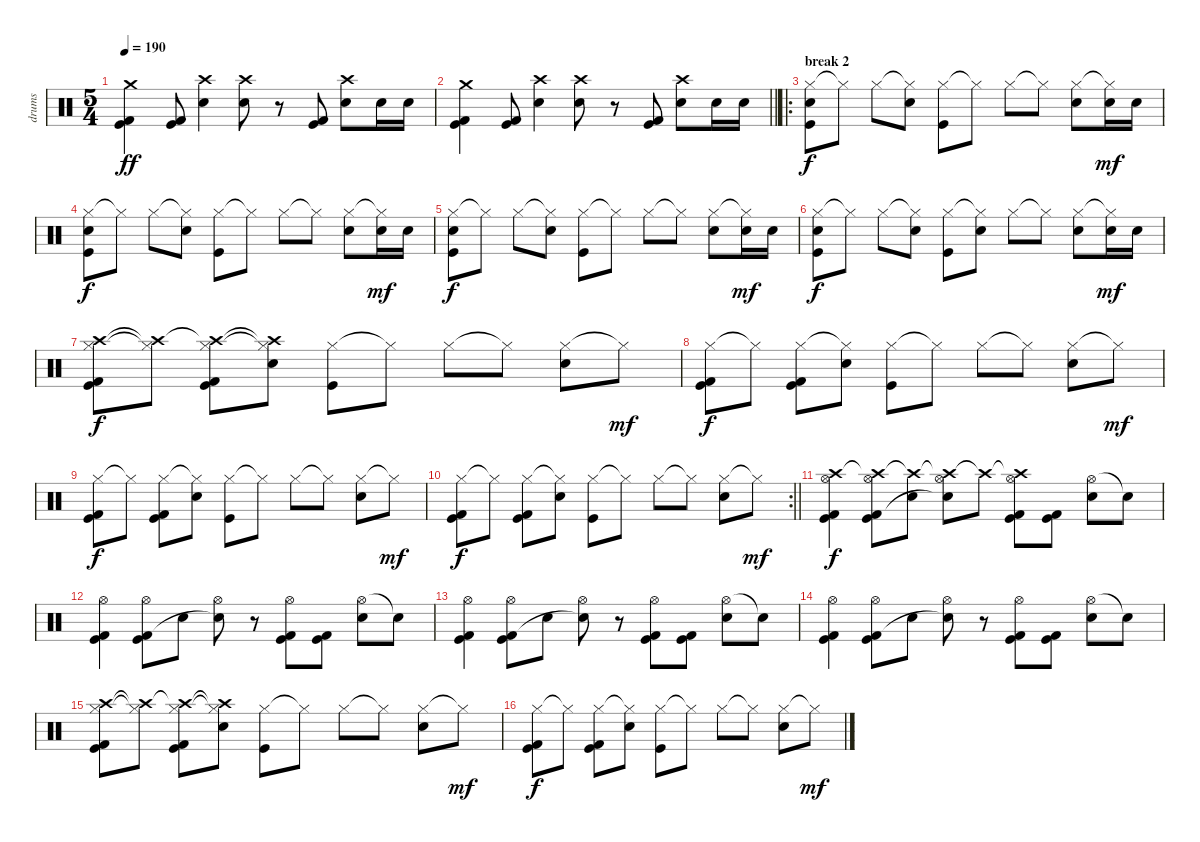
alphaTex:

\track ("drums" "drums") {instrument percussion}
\staff {score}
\articulation defaults
\ts (5 4)
\tempo 190
\clef neutral
\ks c
("Crash medium (hit)" "Kick (hit) 2" "Kick (hit)").4{dy ff} ("Kick (hit) 2" "Kick (hit)").8 ("Crash high (hit)" "Electric Snare (hit)").4 ("Crash high (hit)" "Electric Snare (hit)").8 r.8 ("Kick (hit) 2" "Kick (hit)").8 ("Crash high (hit)" "Electric Snare (hit)").8 "Electric Snare (hit)".16 "Electric Snare (hit)".16 |
\barLineRight lightlight
("Crash medium (hit)" "Kick (hit) 2" "Kick (hit)").4 ("Kick (hit) 2" "Kick (hit)").8 ("Crash high (hit)" "Electric Snare (hit)").4 ("Crash high (hit)" "Electric Snare (hit)").8 r.8 ("Kick (hit) 2" "Kick (hit)").8 ("Crash high (hit)" "Electric Snare (hit)").8 "Electric Snare (hit)".16 "Electric Snare (hit)".16 |
\ro
\section ("" "break 2")
("Hi-Hat (closed)" "Electric Snare (hit)" "Kick (hit)").8{dy f} "Hi-Hat (closed)"{t}.8 "Hi-Hat (closed)".8 ("Hi-Hat (closed)"{t} "Electric Snare (hit)").8 ("Hi-Hat (closed)" "Kick (hit)").8 "Hi-Hat (closed)"{t}.8 "Hi-Hat (closed)".8 "Hi-Hat (closed)"{t}.8 ("Hi-Hat (closed)" "Electric Snare (hit)").8 ("Hi-Hat (closed)"{t} "Electric Snare (hit)").16{dy mf} "Electric Snare (hit)".16 |
("Hi-Hat (closed)" "Electric Snare (hit)" "Kick (hit)").8{dy f} "Hi-Hat (closed)"{t}.8 "Hi-Hat (closed)".8 ("Hi-Hat (closed)"{t} "Electric Snare (hit)").8 ("Hi-Hat (closed)" "Kick (hit)").8 "Hi-Hat (closed)"{t}.8 "Hi-Hat (closed)".8 "Hi-Hat (closed)"{t}.8 ("Hi-Hat (closed)" "Electric Snare (hit)").8 ("Hi-Hat (closed)"{t} "Electric Snare (hit)").16{dy mf} "Electric Snare (hit)".16 |
("Hi-Hat (closed)" "Electric Snare (hit)" "Kick (hit)").8{dy f} "Hi-Hat (closed)"{t}.8 "Hi-Hat (closed)".8 ("Hi-Hat (closed)"{t} "Electric Snare (hit)").8 ("Hi-Hat (closed)" "Kick (hit)").8 "Hi-Hat (closed)"{t}.8 "Hi-Hat (closed)".8 "Hi-Hat (closed)"{t}.8 ("Hi-Hat (closed)" "Electric Snare (hit)").8 ("Hi-Hat (closed)"{t} "Electric Snare (hit)").16{dy mf} "Electric Snare (hit)".16 |
("Hi-Hat (closed)" "Electric Snare (hit)" "Kick (hit)").8{dy f} "Hi-Hat (closed)"{t}.8 "Hi-Hat (closed)".8 ("Hi-Hat (closed)"{t} "Electric Snare (hit)").8 ("Hi-Hat (closed)" "Kick (hit)").8 ("Hi-Hat (closed)"{t} "Electric Snare (hit)").8 "Hi-Hat (closed)".8 "Hi-Hat (closed)"{t}.8 ("Hi-Hat (closed)" "Electric Snare (hit)").8 ("Hi-Hat (closed)"{t} "Electric Snare (hit)").16{dy mf} "Electric Snare (hit)".16 |
("Crash high (hit)" "Hi-Hat (closed)" "Kick (hit) 2" "Kick (hit)").8{dy f} ("Crash high (hit)"{t} "Hi-Hat (closed)"{t}).8 ("Crash high (hit)"{t} "Hi-Hat (closed)" "Kick (hit) 2" "Kick (hit)").8 ("Crash high (hit)"{t} "Hi-Hat (closed)"{t} "Electric Snare (hit)").8 ("Hi-Hat (closed)" "Kick (hit)").8 "Hi-Hat (closed)"{t}.8 "Hi-Hat (closed)".8 "Hi-Hat (closed)"{t}.8 ("Hi-Hat (closed)" "Electric Snare (hit)").8 "Hi-Hat (closed)"{t}.8{dy mf} |
("Hi-Hat (closed)" "Kick (hit) 2" "Kick (hit)").8{dy f} "Hi-Hat (closed)"{t}.8 ("Hi-Hat (closed)" "Kick (hit) 2" "Kick (hit)").8 ("Hi-Hat (closed)"{t} "Electric Snare (hit)").8 ("Hi-Hat (closed)" "Kick (hit)").8 "Hi-Hat (closed)"{t}.8 "Hi-Hat (closed)".8 "Hi-Hat (closed)"{t}.8 ("Hi-Hat (closed)" "Electric Snare (hit)").8 "Hi-Hat (closed)"{t}.8{dy mf} |
("Hi-Hat (closed)" "Kick (hit) 2" "Kick (hit)").8{dy f} "Hi-Hat (closed)"{t}.8 ("Hi-Hat (closed)" "Kick (hit) 2" "Kick (hit)").8 ("Hi-Hat (closed)"{t} "Electric Snare (hit)").8 ("Hi-Hat (closed)" "Kick (hit)").8 "Hi-Hat (closed)"{t}.8 "Hi-Hat (closed)".8 "Hi-Hat (closed)"{t}.8 ("Hi-Hat (closed)" "Electric Snare (hit)").8 "Hi-Hat (closed)"{t}.8{dy mf} |
\rc 2
\barLineRight lightlight
("Hi-Hat (closed)" "Kick (hit) 2" "Kick (hit)").8{dy f} "Hi-Hat (closed)"{t}.8 ("Hi-Hat (closed)" "Kick (hit) 2" "Kick (hit)").8 ("Hi-Hat (closed)"{t} "Electric Snare (hit)").8 ("Hi-Hat (closed)" "Kick (hit)").8 "Hi-Hat (closed)"{t}.8 "Hi-Hat (closed)".8 "Hi-Hat (closed)"{t}.8 ("Hi-Hat (closed)" "Electric Snare (hit)").8 "Hi-Hat (closed)"{t}.8{dy mf} |
("Crash high (hit)" "Hi-Hat (open)" "Kick (hit) 2" "Kick (hit)").4{dy f} ("Crash high (hit)"{t} "Hi-Hat (open)" "Kick (hit) 2" "Kick (hit)").8 ("Crash high (hit)"{t} "Electric Snare (hit)").8 ("Crash high (hit)"{t} "Hi-Hat (open)" "Electric Snare (hit)"{t}).8 "Crash high (hit)"{t}.8 ("Crash high (hit)"{t} "Hi-Hat (open)" "Kick (hit) 2" "Kick (hit)").8 ("Kick (hit) 2" "Kick (hit)").8 ("Hi-Hat (open)" "Electric Snare (hit)").8 "Electric Snare (hit)"{t}.8 |
("Hi-Hat (open)" "Kick (hit) 2" "Kick (hit)").4 ("Hi-Hat (open)" "Kick (hit) 2" "Kick (hit)").8 "Electric Snare (hit)".8 ("Hi-Hat (open)" "Electric Snare (hit)"{t}).8 r.8 ("Hi-Hat (open)" "Kick (hit) 2" "Kick (hit)").8 ("Kick (hit) 2" "Kick (hit)").8 ("Hi-Hat (open)" "Electric Snare (hit)").8 "Electric Snare (hit)"{t}.8 |
("Hi-Hat (open)" "Kick (hit) 2" "Kick (hit)").4 ("Hi-Hat (open)" "Kick (hit) 2" "Kick (hit)").8 "Electric Snare (hit)".8 ("Hi-Hat (open)" "Electric Snare (hit)"{t}).8 r.8 ("Hi-Hat (open)" "Kick (hit) 2" "Kick (hit)").8 ("Kick (hit) 2" "Kick (hit)").8 ("Hi-Hat (open)" "Electric Snare (hit)").8 "Electric Snare (hit)"{t}.8 |
("Hi-Hat (open)" "Kick (hit) 2" "Kick (hit)").4 ("Hi-Hat (open)" "Kick (hit) 2" "Kick (hit)").8 "Electric Snare (hit)".8 ("Hi-Hat (open)" "Electric Snare (hit)"{t}).8 r.8 ("Hi-Hat (open)" "Kick (hit) 2" "Kick (hit)").8 ("Kick (hit) 2" "Kick (hit)").8 ("Hi-Hat (open)" "Electric Snare (hit)").8 "Electric Snare (hit)"{t}.8 |
("Crash high (hit)" "Hi-Hat (closed)" "Kick (hit) 2" "Kick (hit)").8 ("Crash high (hit)"{t} "Hi-Hat (closed)"{t}).8 ("Crash high (hit)"{t} "Hi-Hat (closed)" "Kick (hit) 2" "Kick (hit)").8 ("Crash high (hit)"{t} "Hi-Hat (closed)"{t} "Electric Snare (hit)").8 ("Hi-Hat (closed)" "Kick (hit)").8 "Hi-Hat (closed)"{t}.8 "Hi-Hat (closed)".8 "Hi-Hat (closed)"{t}.8 ("Hi-Hat (closed)" "Electric Snare (hit)").8 "Hi-Hat (closed)"{t}.8{dy mf} |
("Hi-Hat (closed)" "Kick (hit) 2" "Kick (hit)").8{dy f} "Hi-Hat (closed)"{t}.8 ("Hi-Hat (closed)" "Kick (hit) 2" "Kick (hit)").8 ("Hi-Hat (closed)"{t} "Electric Snare (hit)").8 ("Hi-Hat (closed)" "Kick (hit)").8 "Hi-Hat (closed)"{t}.8 "Hi-Hat (closed)".8 "Hi-Hat (closed)"{t}.8 ("Hi-Hat (closed)" "Electric Snare (hit)").8 "Hi-Hat (closed)"{t}.8{dy mf}
